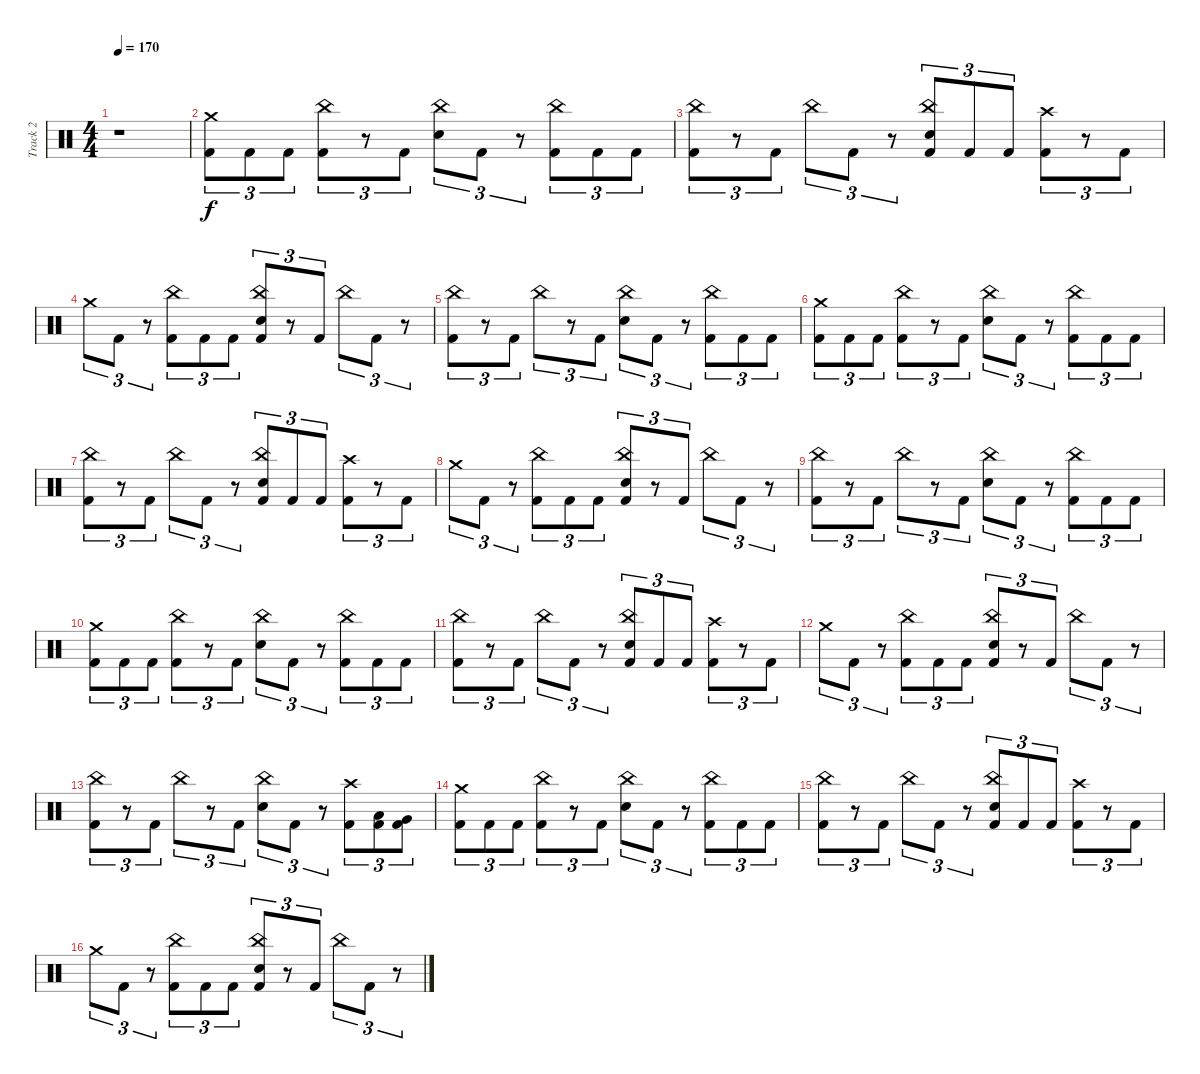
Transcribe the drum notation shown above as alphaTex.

\track ("Track 2" "Track 2") {instrument percussion}
\staff {score}
\articulation defaults
\ts (4 4)
\tempo 170
\clef neutral
\ks c
r.1{dy f} |
("Crash medium (hit)" "Kick (hit) 2").8{tu (3 2)} "Kick (hit) 2".8{tu (3 2)} "Kick (hit) 2".8{tu (3 2)} ("China (hit)" "Kick (hit) 2").8{tu (3 2)} r.8{tu (3 2)} "Kick (hit) 2".8{tu (3 2)} ("China (hit)" "Electric Snare (hit)").8{tu (3 2)} "Kick (hit) 2".8{tu (3 2)} r.8{tu (3 2)} ("China (hit)" "Kick (hit) 2").8{tu (3 2)} "Kick (hit) 2".8{tu (3 2)} "Kick (hit) 2".8{tu (3 2)} |
("China (hit)" "Kick (hit) 2").8{tu (3 2)} r.8{tu (3 2)} "Kick (hit) 2".8{tu (3 2)} "China (hit)".8{tu (3 2)} "Kick (hit) 2".8{tu (3 2)} r.8{tu (3 2)} ("China (hit)" "Electric Snare (hit)" "Kick (hit) 2").8{tu (3 2)} "Kick (hit) 2".8{tu (3 2)} "Kick (hit) 2".8{tu (3 2)} ("Crash high (hit)" "Kick (hit) 2").8{tu (3 2)} r.8{tu (3 2)} "Kick (hit) 2".8{tu (3 2)} |
"Crash medium (hit)".8{tu (3 2)} "Kick (hit) 2".8{tu (3 2)} r.8{tu (3 2)} ("China (hit)" "Kick (hit) 2").8{tu (3 2)} "Kick (hit) 2".8{tu (3 2)} "Kick (hit) 2".8{tu (3 2)} ("China (hit)" "Electric Snare (hit)" "Kick (hit) 2").8{tu (3 2)} r.8{tu (3 2)} "Kick (hit) 2".8{tu (3 2)} "China (hit)".8{tu (3 2)} "Kick (hit) 2".8{tu (3 2)} r.8{tu (3 2)} |
("China (hit)" "Kick (hit) 2").8{tu (3 2)} r.8{tu (3 2)} "Kick (hit) 2".8{tu (3 2)} "China (hit)".8{tu (3 2)} r.8{tu (3 2)} "Kick (hit) 2".8{tu (3 2)} ("China (hit)" "Electric Snare (hit)").8{tu (3 2)} "Kick (hit) 2".8{tu (3 2)} r.8{tu (3 2)} ("China (hit)" "Kick (hit) 2").8{tu (3 2)} "Kick (hit) 2".8{tu (3 2)} "Kick (hit) 2".8{tu (3 2)} |
("Crash medium (hit)" "Kick (hit) 2").8{tu (3 2)} "Kick (hit) 2".8{tu (3 2)} "Kick (hit) 2".8{tu (3 2)} ("China (hit)" "Kick (hit) 2").8{tu (3 2)} r.8{tu (3 2)} "Kick (hit) 2".8{tu (3 2)} ("China (hit)" "Electric Snare (hit)").8{tu (3 2)} "Kick (hit) 2".8{tu (3 2)} r.8{tu (3 2)} ("China (hit)" "Kick (hit) 2").8{tu (3 2)} "Kick (hit) 2".8{tu (3 2)} "Kick (hit) 2".8{tu (3 2)} |
("China (hit)" "Kick (hit) 2").8{tu (3 2)} r.8{tu (3 2)} "Kick (hit) 2".8{tu (3 2)} "China (hit)".8{tu (3 2)} "Kick (hit) 2".8{tu (3 2)} r.8{tu (3 2)} ("China (hit)" "Electric Snare (hit)" "Kick (hit) 2").8{tu (3 2)} "Kick (hit) 2".8{tu (3 2)} "Kick (hit) 2".8{tu (3 2)} ("Crash high (hit)" "Kick (hit) 2").8{tu (3 2)} r.8{tu (3 2)} "Kick (hit) 2".8{tu (3 2)} |
"Crash medium (hit)".8{tu (3 2)} "Kick (hit) 2".8{tu (3 2)} r.8{tu (3 2)} ("China (hit)" "Kick (hit) 2").8{tu (3 2)} "Kick (hit) 2".8{tu (3 2)} "Kick (hit) 2".8{tu (3 2)} ("China (hit)" "Electric Snare (hit)" "Kick (hit) 2").8{tu (3 2)} r.8{tu (3 2)} "Kick (hit) 2".8{tu (3 2)} "China (hit)".8{tu (3 2)} "Kick (hit) 2".8{tu (3 2)} r.8{tu (3 2)} |
("China (hit)" "Kick (hit) 2").8{tu (3 2)} r.8{tu (3 2)} "Kick (hit) 2".8{tu (3 2)} "China (hit)".8{tu (3 2)} r.8{tu (3 2)} "Kick (hit) 2".8{tu (3 2)} ("China (hit)" "Electric Snare (hit)").8{tu (3 2)} "Kick (hit) 2".8{tu (3 2)} r.8{tu (3 2)} ("China (hit)" "Kick (hit) 2").8{tu (3 2)} "Kick (hit) 2".8{tu (3 2)} "Kick (hit) 2".8{tu (3 2)} |
("Crash medium (hit)" "Kick (hit) 2").8{tu (3 2)} "Kick (hit) 2".8{tu (3 2)} "Kick (hit) 2".8{tu (3 2)} ("China (hit)" "Kick (hit) 2").8{tu (3 2)} r.8{tu (3 2)} "Kick (hit) 2".8{tu (3 2)} ("China (hit)" "Electric Snare (hit)").8{tu (3 2)} "Kick (hit) 2".8{tu (3 2)} r.8{tu (3 2)} ("China (hit)" "Kick (hit) 2").8{tu (3 2)} "Kick (hit) 2".8{tu (3 2)} "Kick (hit) 2".8{tu (3 2)} |
("China (hit)" "Kick (hit) 2").8{tu (3 2)} r.8{tu (3 2)} "Kick (hit) 2".8{tu (3 2)} "China (hit)".8{tu (3 2)} "Kick (hit) 2".8{tu (3 2)} r.8{tu (3 2)} ("China (hit)" "Electric Snare (hit)" "Kick (hit) 2").8{tu (3 2)} "Kick (hit) 2".8{tu (3 2)} "Kick (hit) 2".8{tu (3 2)} ("Crash high (hit)" "Kick (hit) 2").8{tu (3 2)} r.8{tu (3 2)} "Kick (hit) 2".8{tu (3 2)} |
"Crash medium (hit)".8{tu (3 2)} "Kick (hit) 2".8{tu (3 2)} r.8{tu (3 2)} ("China (hit)" "Kick (hit) 2").8{tu (3 2)} "Kick (hit) 2".8{tu (3 2)} "Kick (hit) 2".8{tu (3 2)} ("China (hit)" "Electric Snare (hit)" "Kick (hit) 2").8{tu (3 2)} r.8{tu (3 2)} "Kick (hit) 2".8{tu (3 2)} "China (hit)".8{tu (3 2)} "Kick (hit) 2".8{tu (3 2)} r.8{tu (3 2)} |
("China (hit)" "Kick (hit) 2").8{tu (3 2)} r.8{tu (3 2)} "Kick (hit) 2".8{tu (3 2)} "China (hit)".8{tu (3 2)} r.8{tu (3 2)} "Kick (hit) 2".8{tu (3 2)} ("China (hit)" "Electric Snare (hit)").8{tu (3 2)} "Kick (hit) 2".8{tu (3 2)} r.8{tu (3 2)} ("Crash high (hit)" "Kick (hit) 2").8{tu (3 2)} ("Low Tom (hit)" "Kick (hit) 2").8{tu (3 2)} ("Very Low Tom (hit)" "Kick (hit) 2").8{tu (3 2)} |
("Crash medium (hit)" "Kick (hit) 2").8{tu (3 2)} "Kick (hit) 2".8{tu (3 2)} "Kick (hit) 2".8{tu (3 2)} ("China (hit)" "Kick (hit) 2").8{tu (3 2)} r.8{tu (3 2)} "Kick (hit) 2".8{tu (3 2)} ("China (hit)" "Electric Snare (hit)").8{tu (3 2)} "Kick (hit) 2".8{tu (3 2)} r.8{tu (3 2)} ("China (hit)" "Kick (hit) 2").8{tu (3 2)} "Kick (hit) 2".8{tu (3 2)} "Kick (hit) 2".8{tu (3 2)} |
("China (hit)" "Kick (hit) 2").8{tu (3 2)} r.8{tu (3 2)} "Kick (hit) 2".8{tu (3 2)} "China (hit)".8{tu (3 2)} "Kick (hit) 2".8{tu (3 2)} r.8{tu (3 2)} ("China (hit)" "Electric Snare (hit)" "Kick (hit) 2").8{tu (3 2)} "Kick (hit) 2".8{tu (3 2)} "Kick (hit) 2".8{tu (3 2)} ("Crash high (hit)" "Kick (hit) 2").8{tu (3 2)} r.8{tu (3 2)} "Kick (hit) 2".8{tu (3 2)} |
"Crash medium (hit)".8{tu (3 2)} "Kick (hit) 2".8{tu (3 2)} r.8{tu (3 2)} ("China (hit)" "Kick (hit) 2").8{tu (3 2)} "Kick (hit) 2".8{tu (3 2)} "Kick (hit) 2".8{tu (3 2)} ("China (hit)" "Electric Snare (hit)" "Kick (hit) 2").8{tu (3 2)} r.8{tu (3 2)} "Kick (hit) 2".8{tu (3 2)} "China (hit)".8{tu (3 2)} "Kick (hit) 2".8{tu (3 2)} r.8{tu (3 2)}
